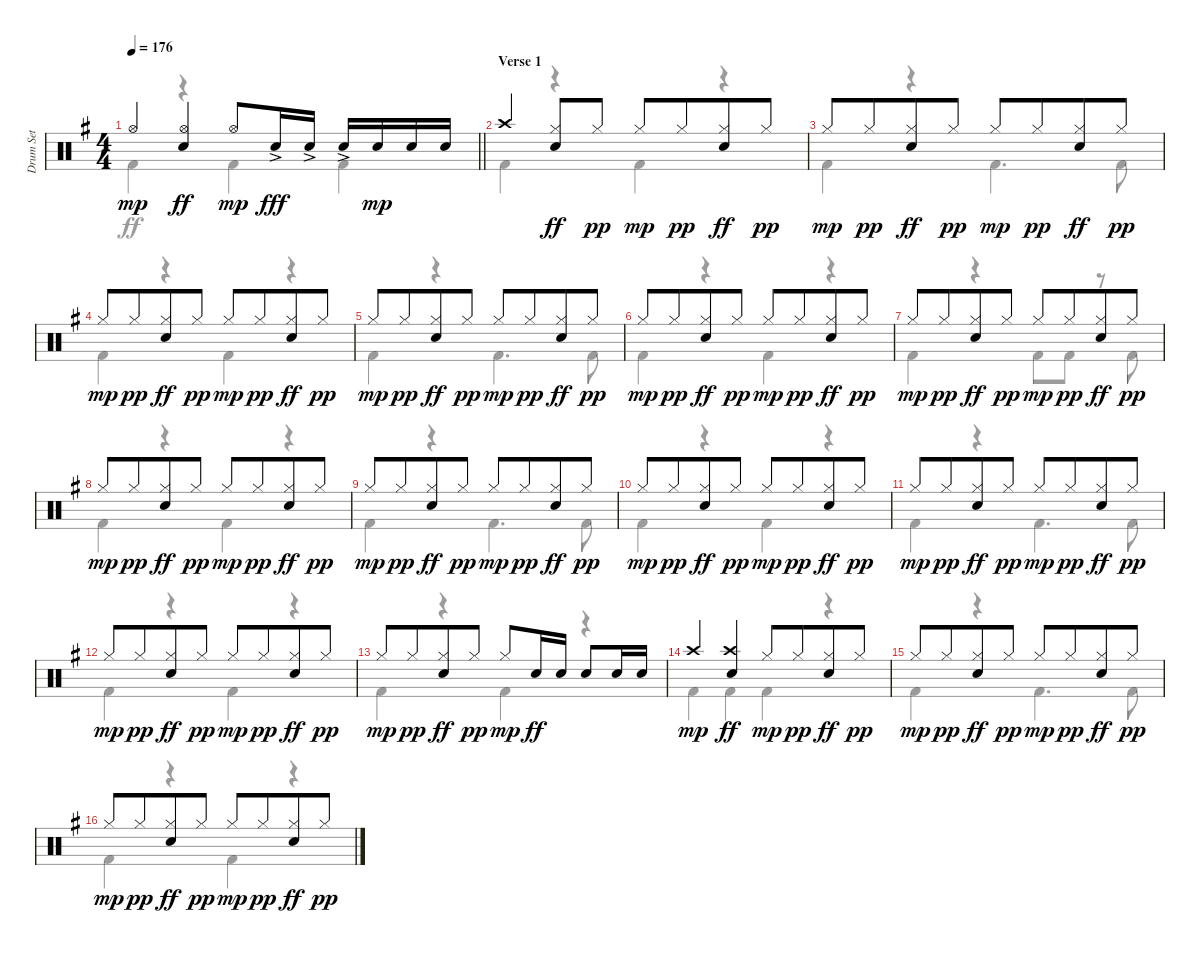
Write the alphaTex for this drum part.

\track ("Drum Set" "Drum Set") {instrument percussion}
\staff {score}
\articulation defaults
\voice
\ts (4 4)
\tempo 176
\clef neutral
\barLineRight lightlight
\ks eminor "Hi-Hat (open)".4{dy mp}
("Hi-Hat (open)" "Electric Snare (hit)").4{dy ff} "Hi-Hat (open)".8{dy mp} "Electric Snare (hit)"{ac}.16{dy fff} "Electric Snare (hit)"{ac}.16 "Electric Snare (hit)"{ac}.16 "Electric Snare (hit)".16{dy mp} "Electric Snare (hit)".16 "Electric Snare (hit)".16 |
\section ("" "Verse 1")
"Crash high (hit)".4 ("Hi-Hat (closed)" "Electric Snare (hit)").8{dy ff} "Hi-Hat (closed)".8{dy pp} "Hi-Hat (closed)".8{dy mp} "Hi-Hat (closed)".8{dy pp beam merge} ("Hi-Hat (closed)" "Electric Snare (hit)").8{dy ff} "Hi-Hat (closed)".8{dy pp} |
"Hi-Hat (closed)".8{dy mp} "Hi-Hat (closed)".8{dy pp beam merge} ("Hi-Hat (closed)" "Electric Snare (hit)").8{dy ff} "Hi-Hat (closed)".8{dy pp} "Hi-Hat (closed)".8{dy mp} "Hi-Hat (closed)".8{dy pp beam merge} ("Hi-Hat (closed)" "Electric Snare (hit)").8{dy ff} "Hi-Hat (closed)".8{dy pp} |
"Hi-Hat (closed)".8{dy mp} "Hi-Hat (closed)".8{dy pp beam merge} ("Hi-Hat (closed)" "Electric Snare (hit)").8{dy ff} "Hi-Hat (closed)".8{dy pp} "Hi-Hat (closed)".8{dy mp} "Hi-Hat (closed)".8{dy pp beam merge} ("Hi-Hat (closed)" "Electric Snare (hit)").8{dy ff} "Hi-Hat (closed)".8{dy pp} |
"Hi-Hat (closed)".8{dy mp} "Hi-Hat (closed)".8{dy pp beam merge} ("Hi-Hat (closed)" "Electric Snare (hit)").8{dy ff} "Hi-Hat (closed)".8{dy pp} "Hi-Hat (closed)".8{dy mp} "Hi-Hat (closed)".8{dy pp beam merge} ("Hi-Hat (closed)" "Electric Snare (hit)").8{dy ff} "Hi-Hat (closed)".8{dy pp} |
"Hi-Hat (closed)".8{dy mp} "Hi-Hat (closed)".8{dy pp beam merge} ("Hi-Hat (closed)" "Electric Snare (hit)").8{dy ff} "Hi-Hat (closed)".8{dy pp} "Hi-Hat (closed)".8{dy mp} "Hi-Hat (closed)".8{dy pp beam merge} ("Hi-Hat (closed)" "Electric Snare (hit)").8{dy ff} "Hi-Hat (closed)".8{dy pp} |
"Hi-Hat (closed)".8{dy mp} "Hi-Hat (closed)".8{dy pp beam merge} ("Hi-Hat (closed)" "Electric Snare (hit)").8{dy ff} "Hi-Hat (closed)".8{dy pp} "Hi-Hat (closed)".8{dy mp} "Hi-Hat (closed)".8{dy pp beam merge} ("Hi-Hat (closed)" "Electric Snare (hit)").8{dy ff} "Hi-Hat (closed)".8{dy pp} |
"Hi-Hat (closed)".8{dy mp} "Hi-Hat (closed)".8{dy pp beam merge} ("Hi-Hat (closed)" "Electric Snare (hit)").8{dy ff} "Hi-Hat (closed)".8{dy pp} "Hi-Hat (closed)".8{dy mp} "Hi-Hat (closed)".8{dy pp beam merge} ("Hi-Hat (closed)" "Electric Snare (hit)").8{dy ff} "Hi-Hat (closed)".8{dy pp} |
"Hi-Hat (closed)".8{dy mp} "Hi-Hat (closed)".8{dy pp beam merge} ("Hi-Hat (closed)" "Electric Snare (hit)").8{dy ff} "Hi-Hat (closed)".8{dy pp} "Hi-Hat (closed)".8{dy mp} "Hi-Hat (closed)".8{dy pp beam merge} ("Hi-Hat (closed)" "Electric Snare (hit)").8{dy ff} "Hi-Hat (closed)".8{dy pp} |
"Hi-Hat (closed)".8{dy mp} "Hi-Hat (closed)".8{dy pp beam merge} ("Hi-Hat (closed)" "Electric Snare (hit)").8{dy ff} "Hi-Hat (closed)".8{dy pp} "Hi-Hat (closed)".8{dy mp} "Hi-Hat (closed)".8{dy pp beam merge} ("Hi-Hat (closed)" "Electric Snare (hit)").8{dy ff} "Hi-Hat (closed)".8{dy pp} |
"Hi-Hat (closed)".8{dy mp} "Hi-Hat (closed)".8{dy pp beam merge} ("Hi-Hat (closed)" "Electric Snare (hit)").8{dy ff} "Hi-Hat (closed)".8{dy pp} "Hi-Hat (closed)".8{dy mp} "Hi-Hat (closed)".8{dy pp beam merge} ("Hi-Hat (closed)" "Electric Snare (hit)").8{dy ff} "Hi-Hat (closed)".8{dy pp} |
"Hi-Hat (closed)".8{dy mp} "Hi-Hat (closed)".8{dy pp beam merge} ("Hi-Hat (closed)" "Electric Snare (hit)").8{dy ff} "Hi-Hat (closed)".8{dy pp} "Hi-Hat (closed)".8{dy mp} "Hi-Hat (closed)".8{dy pp beam merge} ("Hi-Hat (closed)" "Electric Snare (hit)").8{dy ff} "Hi-Hat (closed)".8{dy pp} |
"Hi-Hat (closed)".8{dy mp} "Hi-Hat (closed)".8{dy pp beam merge} ("Hi-Hat (closed)" "Electric Snare (hit)").8{dy ff} "Hi-Hat (closed)".8{dy pp} "Hi-Hat (closed)".8{dy mp beam merge} "Electric Snare (hit)".16{dy ff} "Electric Snare (hit)".16 "Electric Snare (hit)".8 "Electric Snare (hit)".16 "Electric Snare (hit)".16 |
"Crash high (hit)".4{dy mp beam merge} ("Crash high (hit)" "Electric Snare (hit)").4{dy ff} "Hi-Hat (closed)".8{dy mp} "Hi-Hat (closed)".8{dy pp beam merge} ("Hi-Hat (closed)" "Electric Snare (hit)").8{dy ff} "Hi-Hat (closed)".8{dy pp} |
"Hi-Hat (closed)".8{dy mp} "Hi-Hat (closed)".8{dy pp beam merge} ("Hi-Hat (closed)" "Electric Snare (hit)").8{dy ff} "Hi-Hat (closed)".8{dy pp} "Hi-Hat (closed)".8{dy mp} "Hi-Hat (closed)".8{dy pp beam merge} ("Hi-Hat (closed)" "Electric Snare (hit)").8{dy ff} "Hi-Hat (closed)".8{dy pp} |
"Hi-Hat (closed)".8{dy mp} "Hi-Hat (closed)".8{dy pp beam merge} ("Hi-Hat (closed)" "Electric Snare (hit)").8{dy ff} "Hi-Hat (closed)".8{dy pp} "Hi-Hat (closed)".8{dy mp} "Hi-Hat (closed)".8{dy pp beam merge} ("Hi-Hat (closed)" "Electric Snare (hit)").8{dy ff} "Hi-Hat (closed)".8{dy pp}
\voice
\clef neutral
\ottava regular
\simile none
\barLineRight lightlight
\ks eminor "Kick (hit) 2".4{dy ff}
r.4 "Kick (hit) 2".4 "Kick (hit) 2".4 |
"Kick (hit) 2".4 r.4 "Kick (hit) 2".4 r.4 |
"Kick (hit) 2".4 r.4 "Kick (hit) 2".4{d} "Kick (hit) 2".8 |
"Kick (hit) 2".4 r.4 "Kick (hit) 2".4 r.4 |
"Kick (hit) 2".4 r.4 "Kick (hit) 2".4{d} "Kick (hit) 2".8 |
"Kick (hit) 2".4 r.4 "Kick (hit) 2".4 r.4 |
"Kick (hit) 2".4 r.4 "Kick (hit) 2".8 "Kick (hit) 2".8 r.8 "Kick (hit) 2".8 |
"Kick (hit) 2".4 r.4 "Kick (hit) 2".4 r.4 |
"Kick (hit) 2".4 r.4 "Kick (hit) 2".4{d} "Kick (hit) 2".8 |
"Kick (hit) 2".4 r.4 "Kick (hit) 2".4 r.4 |
"Kick (hit) 2".4 r.4 "Kick (hit) 2".4{d} "Kick (hit) 2".8 |
"Kick (hit) 2".4 r.4 "Kick (hit) 2".4 r.4 |
"Kick (hit) 2".4 r.4 "Kick (hit) 2".4 r.4 |
"Kick (hit) 2".4 "Kick (hit) 2".4 "Kick (hit) 2".4 r.4 |
"Kick (hit) 2".4 r.4 "Kick (hit) 2".4{d} "Kick (hit) 2".8 |
"Kick (hit) 2".4 r.4 "Kick (hit) 2".4 r.4
